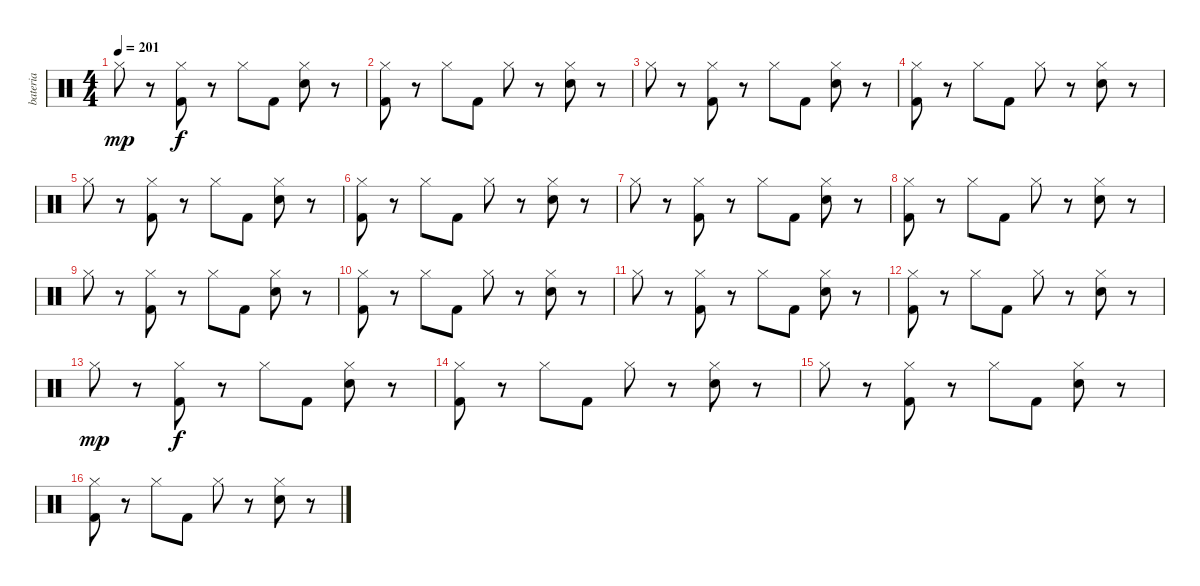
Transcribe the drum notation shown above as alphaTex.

\track ("bateria" "bateria") {solo instrument percussion}
\staff {score}
\articulation defaults
\ts (4 4)
\tempo 201
\clef neutral
\ks c "Hi-Hat (closed)".8{dy mp}
r.8 ("Hi-Hat (closed)" "Kick (hit) 2").8{dy f} r.8 "Hi-Hat (closed)".8 "Kick (hit) 2".8 ("Hi-Hat (closed)" "Electric Snare (hit)").8 r.8 |
("Hi-Hat (closed)" "Kick (hit) 2").8 r.8 "Hi-Hat (closed)".8 "Kick (hit) 2".8 "Hi-Hat (closed)".8 r.8 ("Hi-Hat (closed)" "Electric Snare (hit)").8 r.8 |
"Hi-Hat (closed)".8 r.8 ("Hi-Hat (closed)" "Kick (hit) 2").8 r.8 "Hi-Hat (closed)".8 "Kick (hit) 2".8 ("Hi-Hat (closed)" "Electric Snare (hit)").8 r.8 |
("Hi-Hat (closed)" "Kick (hit) 2").8 r.8 "Hi-Hat (closed)".8 "Kick (hit) 2".8 "Hi-Hat (closed)".8 r.8 ("Hi-Hat (closed)" "Electric Snare (hit)").8 r.8 |
"Hi-Hat (closed)".8 r.8 ("Hi-Hat (closed)" "Kick (hit) 2").8 r.8 "Hi-Hat (closed)".8 "Kick (hit) 2".8 ("Hi-Hat (closed)" "Electric Snare (hit)").8 r.8 |
("Hi-Hat (closed)" "Kick (hit) 2").8 r.8 "Hi-Hat (closed)".8 "Kick (hit) 2".8 "Hi-Hat (closed)".8 r.8 ("Hi-Hat (closed)" "Electric Snare (hit)").8 r.8 |
"Hi-Hat (closed)".8 r.8 ("Hi-Hat (closed)" "Kick (hit) 2").8 r.8 "Hi-Hat (closed)".8 "Kick (hit) 2".8 ("Hi-Hat (closed)" "Electric Snare (hit)").8 r.8 |
("Hi-Hat (closed)" "Kick (hit) 2").8 r.8 "Hi-Hat (closed)".8 "Kick (hit) 2".8 "Hi-Hat (closed)".8 r.8 ("Hi-Hat (closed)" "Electric Snare (hit)").8 r.8 |
"Hi-Hat (closed)".8 r.8 ("Hi-Hat (closed)" "Kick (hit) 2").8 r.8 "Hi-Hat (closed)".8 "Kick (hit) 2".8 ("Hi-Hat (closed)" "Electric Snare (hit)").8 r.8 |
("Hi-Hat (closed)" "Kick (hit) 2").8 r.8 "Hi-Hat (closed)".8 "Kick (hit) 2".8 "Hi-Hat (closed)".8 r.8 ("Hi-Hat (closed)" "Electric Snare (hit)").8 r.8 |
"Hi-Hat (closed)".8 r.8 ("Hi-Hat (closed)" "Kick (hit) 2").8 r.8 "Hi-Hat (closed)".8 "Kick (hit) 2".8 ("Hi-Hat (closed)" "Electric Snare (hit)").8 r.8 |
("Hi-Hat (closed)" "Kick (hit) 2").8 r.8 "Hi-Hat (closed)".8 "Kick (hit) 2".8 "Hi-Hat (closed)".8 r.8 ("Hi-Hat (closed)" "Electric Snare (hit)").8 r.8 |
"Hi-Hat (closed)".8{dy mp} r.8 ("Hi-Hat (closed)" "Kick (hit) 2").8{dy f} r.8 "Hi-Hat (closed)".8 "Kick (hit) 2".8 ("Hi-Hat (closed)" "Electric Snare (hit)").8 r.8 |
("Hi-Hat (closed)" "Kick (hit) 2").8 r.8 "Hi-Hat (closed)".8 "Kick (hit) 2".8 "Hi-Hat (closed)".8 r.8 ("Hi-Hat (closed)" "Electric Snare (hit)").8 r.8 |
"Hi-Hat (closed)".8 r.8 ("Hi-Hat (closed)" "Kick (hit) 2").8 r.8 "Hi-Hat (closed)".8 "Kick (hit) 2".8 ("Hi-Hat (closed)" "Electric Snare (hit)").8 r.8 |
("Hi-Hat (closed)" "Kick (hit) 2").8 r.8 "Hi-Hat (closed)".8 "Kick (hit) 2".8 "Hi-Hat (closed)".8 r.8 ("Hi-Hat (closed)" "Electric Snare (hit)").8 r.8
